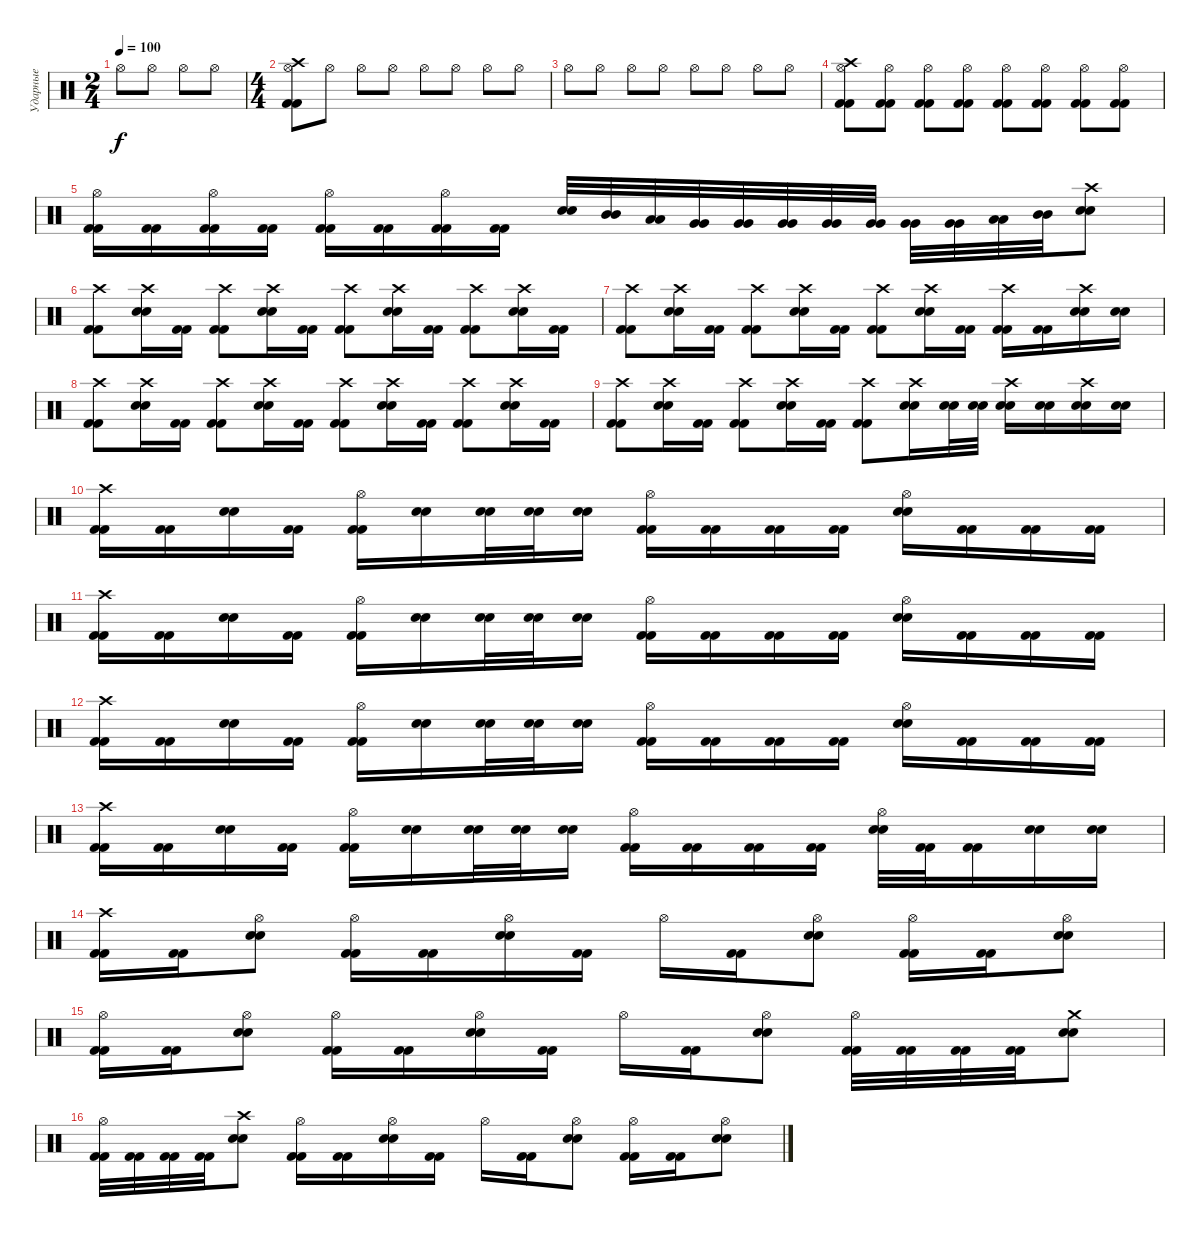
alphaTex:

\track ("Ударные" "Ударные") {instrument percussion}
\staff {score}
\articulation defaults
\ts (2 4)
\tempo 100
\clef neutral
\ks c "Hi-Hat (open)".8{dy f} "Hi-Hat (open)".8 "Hi-Hat (open)".8 "Hi-Hat (open)".8
|
\ts (4 4)
("Hi-Hat (open)" "Crash high (hit)" "Kick (hit) 2" "Kick (hit) 2").8 "Hi-Hat (open)".8 "Hi-Hat (open)".8 "Hi-Hat (open)".8 "Hi-Hat (open)".8 "Hi-Hat (open)".8 "Hi-Hat (open)".8 "Hi-Hat (open)".8 |
"Hi-Hat (open)".8 "Hi-Hat (open)".8 "Hi-Hat (open)".8 "Hi-Hat (open)".8 "Hi-Hat (open)".8 "Hi-Hat (open)".8 "Hi-Hat (open)".8 "Hi-Hat (open)".8 |
("Hi-Hat (open)" "Crash high (hit)" "Kick (hit) 2" "Kick (hit) 2").8 ("Hi-Hat (open)" "Kick (hit) 2" "Kick (hit) 2").8 ("Hi-Hat (open)" "Kick (hit) 2" "Kick (hit) 2").8 ("Hi-Hat (open)" "Kick (hit) 2" "Kick (hit) 2").8 ("Hi-Hat (open)" "Kick (hit) 2" "Kick (hit) 2").8 ("Hi-Hat (open)" "Kick (hit) 2" "Kick (hit) 2").8 ("Hi-Hat (open)" "Kick (hit) 2" "Kick (hit) 2").8 ("Hi-Hat (open)" "Kick (hit) 2" "Kick (hit) 2").8 |
("Hi-Hat (open)" "Kick (hit) 2" "Kick (hit) 2").16 ("Kick (hit) 2" "Kick (hit) 2").16 ("Hi-Hat (open)" "Kick (hit) 2" "Kick (hit) 2").16 ("Kick (hit) 2" "Kick (hit) 2").16 ("Hi-Hat (open)" "Kick (hit) 2" "Kick (hit) 2").16 ("Kick (hit) 2" "Kick (hit) 2").16 ("Hi-Hat (open)" "Kick (hit) 2" "Kick (hit) 2").16 ("Kick (hit) 2" "Kick (hit) 2").16 ("Electric Snare (hit)" "Electric Snare (hit)").32 ("Mid Tom (hit)" "Mid Tom (hit)").32 ("Low Tom (hit)" "Low Tom (hit)").32 ("Very Low Tom (hit)" "Very Low Tom (hit)").32 ("Very Low Tom (hit)" "Very Low Tom (hit)").32 ("Very Low Tom (hit)" "Very Low Tom (hit)").32 ("Very Low Tom (hit)" "Very Low Tom (hit)").32 ("Very Low Tom (hit)" "Very Low Tom (hit)").32 ("Very Low Tom (hit)" "Very Low Tom (hit)").32 ("Very Low Tom (hit)" "Very Low Tom (hit)").32 ("Low Tom (hit)" "Low Tom (hit)").32 ("Mid Tom (hit)" "Mid Tom (hit)").32 ("Crash high (hit)" "Electric Snare (hit)" "Electric Snare (hit)").8 |
("Crash high (hit)" "Kick (hit) 2" "Kick (hit) 2").8 ("Crash high (hit)" "Electric Snare (hit)" "Electric Snare (hit)").16 ("Kick (hit) 2" "Kick (hit) 2").16 ("Crash high (hit)" "Kick (hit) 2" "Kick (hit) 2").8 ("Crash high (hit)" "Electric Snare (hit)" "Electric Snare (hit)").16 ("Kick (hit) 2" "Kick (hit) 2").16 ("Crash high (hit)" "Kick (hit) 2" "Kick (hit) 2").8 ("Crash high (hit)" "Electric Snare (hit)" "Electric Snare (hit)").16 ("Kick (hit) 2" "Kick (hit) 2").16 ("Crash high (hit)" "Kick (hit) 2" "Kick (hit) 2").8 ("Crash high (hit)" "Electric Snare (hit)" "Electric Snare (hit)").16 ("Kick (hit) 2" "Kick (hit) 2").16 |
("Crash high (hit)" "Kick (hit) 2" "Kick (hit) 2").8 ("Crash high (hit)" "Electric Snare (hit)" "Electric Snare (hit)").16 ("Kick (hit) 2" "Kick (hit) 2").16 ("Crash high (hit)" "Kick (hit) 2" "Kick (hit) 2").8 ("Crash high (hit)" "Electric Snare (hit)" "Electric Snare (hit)").16 ("Kick (hit) 2" "Kick (hit) 2").16 ("Crash high (hit)" "Kick (hit) 2" "Kick (hit) 2").8 ("Crash high (hit)" "Electric Snare (hit)" "Electric Snare (hit)").16 ("Kick (hit) 2" "Kick (hit) 2").16 ("Crash high (hit)" "Kick (hit) 2" "Kick (hit) 2").16 ("Kick (hit) 2" "Kick (hit) 2").16 ("Crash high (hit)" "Electric Snare (hit)" "Electric Snare (hit)").16 ("Electric Snare (hit)" "Electric Snare (hit)").16 |
("Crash high (hit)" "Kick (hit) 2" "Kick (hit) 2").8 ("Crash high (hit)" "Electric Snare (hit)" "Electric Snare (hit)").16 ("Kick (hit) 2" "Kick (hit) 2").16 ("Crash high (hit)" "Kick (hit) 2" "Kick (hit) 2").8 ("Crash high (hit)" "Electric Snare (hit)" "Electric Snare (hit)").16 ("Kick (hit) 2" "Kick (hit) 2").16 ("Crash high (hit)" "Kick (hit) 2" "Kick (hit) 2").8 ("Crash high (hit)" "Electric Snare (hit)" "Electric Snare (hit)").16 ("Kick (hit) 2" "Kick (hit) 2").16 ("Crash high (hit)" "Kick (hit) 2" "Kick (hit) 2").8 ("Crash high (hit)" "Electric Snare (hit)" "Electric Snare (hit)").16 ("Kick (hit) 2" "Kick (hit) 2").16 |
("Crash high (hit)" "Kick (hit) 2" "Kick (hit) 2").8 ("Crash high (hit)" "Electric Snare (hit)" "Electric Snare (hit)").16 ("Kick (hit) 2" "Kick (hit) 2").16 ("Crash high (hit)" "Kick (hit) 2" "Kick (hit) 2").8 ("Crash high (hit)" "Electric Snare (hit)" "Electric Snare (hit)").16 ("Kick (hit) 2" "Kick (hit) 2").16 ("Crash high (hit)" "Kick (hit) 2" "Kick (hit) 2").8 ("Crash high (hit)" "Electric Snare (hit)" "Electric Snare (hit)").16 ("Electric Snare (hit)" "Electric Snare (hit)").32 ("Electric Snare (hit)" "Electric Snare (hit)").32 ("Crash high (hit)" "Electric Snare (hit)" "Electric Snare (hit)").16 ("Electric Snare (hit)" "Electric Snare (hit)").16 ("Crash high (hit)" "Electric Snare (hit)" "Electric Snare (hit)").16 ("Electric Snare (hit)" "Electric Snare (hit)").16 |
("Crash high (hit)" "Kick (hit) 2" "Kick (hit) 2").16 ("Kick (hit) 2" "Kick (hit) 2").16 ("Electric Snare (hit)" "Electric Snare (hit)").16 ("Kick (hit) 2" "Kick (hit) 2").16 ("Hi-Hat (open)" "Kick (hit) 2" "Kick (hit) 2").16 ("Electric Snare (hit)" "Electric Snare (hit)").16 ("Electric Snare (hit)" "Electric Snare (hit)").32 ("Electric Snare (hit)" "Electric Snare (hit)").32 ("Electric Snare (hit)" "Electric Snare (hit)").16 ("Hi-Hat (open)" "Kick (hit) 2" "Kick (hit) 2").16 ("Kick (hit) 2" "Kick (hit) 2").16 ("Kick (hit) 2" "Kick (hit) 2").16 ("Kick (hit) 2" "Kick (hit) 2").16 ("Hi-Hat (open)" "Electric Snare (hit)" "Electric Snare (hit)").16 ("Kick (hit) 2" "Kick (hit) 2").16 ("Kick (hit) 2" "Kick (hit) 2").16 ("Kick (hit) 2" "Kick (hit) 2").16 |
("Crash high (hit)" "Kick (hit) 2" "Kick (hit) 2").16 ("Kick (hit) 2" "Kick (hit) 2").16 ("Electric Snare (hit)" "Electric Snare (hit)").16 ("Kick (hit) 2" "Kick (hit) 2").16 ("Hi-Hat (open)" "Kick (hit) 2" "Kick (hit) 2").16 ("Electric Snare (hit)" "Electric Snare (hit)").16 ("Electric Snare (hit)" "Electric Snare (hit)").32 ("Electric Snare (hit)" "Electric Snare (hit)").32 ("Electric Snare (hit)" "Electric Snare (hit)").16 ("Hi-Hat (open)" "Kick (hit) 2" "Kick (hit) 2").16 ("Kick (hit) 2" "Kick (hit) 2").16 ("Kick (hit) 2" "Kick (hit) 2").16 ("Kick (hit) 2" "Kick (hit) 2").16 ("Hi-Hat (open)" "Electric Snare (hit)" "Electric Snare (hit)").16 ("Kick (hit) 2" "Kick (hit) 2").16 ("Kick (hit) 2" "Kick (hit) 2").16 ("Kick (hit) 2" "Kick (hit) 2").16 |
("Crash high (hit)" "Kick (hit) 2" "Kick (hit) 2").16 ("Kick (hit) 2" "Kick (hit) 2").16 ("Electric Snare (hit)" "Electric Snare (hit)").16 ("Kick (hit) 2" "Kick (hit) 2").16 ("Hi-Hat (open)" "Kick (hit) 2" "Kick (hit) 2").16 ("Electric Snare (hit)" "Electric Snare (hit)").16 ("Electric Snare (hit)" "Electric Snare (hit)").32 ("Electric Snare (hit)" "Electric Snare (hit)").32 ("Electric Snare (hit)" "Electric Snare (hit)").16 ("Hi-Hat (open)" "Kick (hit) 2" "Kick (hit) 2").16 ("Kick (hit) 2" "Kick (hit) 2").16 ("Kick (hit) 2" "Kick (hit) 2").16 ("Kick (hit) 2" "Kick (hit) 2").16 ("Hi-Hat (open)" "Electric Snare (hit)" "Electric Snare (hit)").16 ("Kick (hit) 2" "Kick (hit) 2").16 ("Kick (hit) 2" "Kick (hit) 2").16 ("Kick (hit) 2" "Kick (hit) 2").16 |
("Crash high (hit)" "Kick (hit) 2" "Kick (hit) 2").16 ("Kick (hit) 2" "Kick (hit) 2").16 ("Electric Snare (hit)" "Electric Snare (hit)").16 ("Kick (hit) 2" "Kick (hit) 2").16 ("Hi-Hat (open)" "Kick (hit) 2" "Kick (hit) 2").16 ("Electric Snare (hit)" "Electric Snare (hit)").16 ("Electric Snare (hit)" "Electric Snare (hit)").32 ("Electric Snare (hit)" "Electric Snare (hit)").32 ("Electric Snare (hit)" "Electric Snare (hit)").16 ("Hi-Hat (open)" "Kick (hit) 2" "Kick (hit) 2").16 ("Kick (hit) 2" "Kick (hit) 2").16 ("Kick (hit) 2" "Kick (hit) 2").16 ("Kick (hit) 2" "Kick (hit) 2").16 ("Hi-Hat (open)" "Electric Snare (hit)" "Electric Snare (hit)").32 ("Kick (hit) 2" "Kick (hit) 2").32 ("Kick (hit) 2" "Kick (hit) 2").16 ("Electric Snare (hit)" "Electric Snare (hit)").16 ("Electric Snare (hit)" "Electric Snare (hit)").16 |
("Crash high (hit)" "Kick (hit) 2" "Kick (hit) 2").16 ("Kick (hit) 2" "Kick (hit) 2").16 ("Hi-Hat (open)" "Electric Snare (hit)" "Electric Snare (hit)").8 ("Hi-Hat (open)" "Kick (hit) 2" "Kick (hit) 2").16 ("Kick (hit) 2" "Kick (hit) 2").16 ("Hi-Hat (open)" "Electric Snare (hit)" "Electric Snare (hit)").16 ("Kick (hit) 2" "Kick (hit) 2").16 "Hi-Hat (open)".16 ("Kick (hit) 2" "Kick (hit) 2").16 ("Hi-Hat (open)" "Electric Snare (hit)" "Electric Snare (hit)").8 ("Hi-Hat (open)" "Kick (hit) 2" "Kick (hit) 2").16 ("Kick (hit) 2" "Kick (hit) 2").16 ("Hi-Hat (open)" "Electric Snare (hit)" "Electric Snare (hit)").8 |
("Hi-Hat (open)" "Kick (hit) 2" "Kick (hit) 2").16 ("Kick (hit) 2" "Kick (hit) 2").16 ("Hi-Hat (open)" "Electric Snare (hit)" "Electric Snare (hit)").8 ("Hi-Hat (open)" "Kick (hit) 2" "Kick (hit) 2").16 ("Kick (hit) 2" "Kick (hit) 2").16 ("Hi-Hat (open)" "Electric Snare (hit)" "Electric Snare (hit)").16 ("Kick (hit) 2" "Kick (hit) 2").16 "Hi-Hat (open)".16 ("Kick (hit) 2" "Kick (hit) 2").16 ("Hi-Hat (open)" "Electric Snare (hit)" "Electric Snare (hit)").8 ("Hi-Hat (open)" "Kick (hit) 2" "Kick (hit) 2").32 ("Kick (hit) 2" "Kick (hit) 2").32 ("Kick (hit) 2" "Kick (hit) 2").32 ("Kick (hit) 2" "Kick (hit) 2").32 ("Crash medium (hit)" "Electric Snare (hit)" "Electric Snare (hit)").8 |
("Hi-Hat (open)" "Kick (hit) 2" "Kick (hit) 2").32 ("Kick (hit) 2" "Kick (hit) 2").32 ("Kick (hit) 2" "Kick (hit) 2").32 ("Kick (hit) 2" "Kick (hit) 2").32 ("Crash high (hit)" "Electric Snare (hit)" "Electric Snare (hit)").8 ("Hi-Hat (open)" "Kick (hit) 2" "Kick (hit) 2").16 ("Kick (hit) 2" "Kick (hit) 2").16 ("Hi-Hat (open)" "Electric Snare (hit)" "Electric Snare (hit)").16 ("Kick (hit) 2" "Kick (hit) 2").16 "Hi-Hat (open)".16 ("Kick (hit) 2" "Kick (hit) 2").16 ("Hi-Hat (open)" "Electric Snare (hit)" "Electric Snare (hit)").8 ("Hi-Hat (open)" "Kick (hit) 2" "Kick (hit) 2").16 ("Kick (hit) 2" "Kick (hit) 2").16 ("Hi-Hat (open)" "Electric Snare (hit)" "Electric Snare (hit)").8
